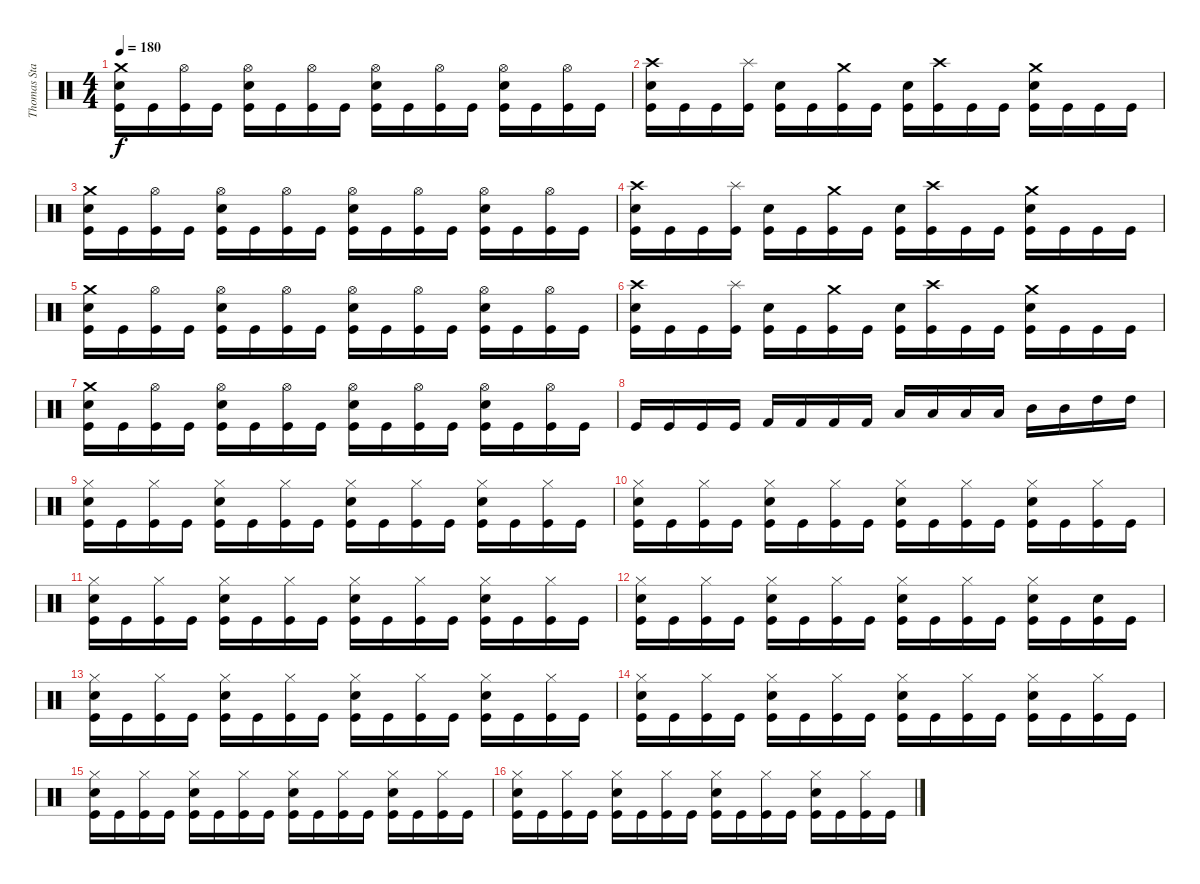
\track ("Thomas Stauch" "Thomas Sta") {instrument percussion}
\staff {score}
\articulation defaults
\ts (4 4)
\tempo 180
\clef neutral
\ks c
("Kick (hit)" "Snare (hit) 2" "Crash medium (hit)").16{dy f} "Kick (hit)".16 ("Kick (hit)" "Hi-Hat (open)").16 "Kick (hit)".16 ("Kick (hit)" "Snare (hit) 2" "Hi-Hat (open)").16 "Kick (hit)".16 ("Kick (hit)" "Hi-Hat (open)").16 "Kick (hit)".16 ("Kick (hit)" "Snare (hit) 2" "Hi-Hat (open)").16 "Kick (hit)".16 ("Kick (hit)" "Hi-Hat (open)").16 "Kick (hit)".16 ("Kick (hit)" "Snare (hit) 2" "Hi-Hat (open)").16 "Kick (hit)".16 ("Kick (hit)" "Hi-Hat (open)").16 "Kick (hit)".16 |
("Kick (hit)" "Snare (hit) 2" "Crash high (hit)").16 "Kick (hit)".16 "Kick (hit)".16 ("Kick (hit)" "Splash (hit)").16 ("Kick (hit)" "Snare (hit) 2").16 "Kick (hit)".16 ("Kick (hit)" "Crash medium (hit)").16 "Kick (hit)".16 ("Kick (hit)" "Snare (hit) 2").16 ("Kick (hit)" "Crash high (hit)").16 "Kick (hit)".16 "Kick (hit)".16 ("Kick (hit)" "Snare (hit) 2" "Crash medium (hit)").16 "Kick (hit)".16 "Kick (hit)".16 "Kick (hit)".16 |
("Kick (hit)" "Snare (hit) 2" "Crash medium (hit)").16 "Kick (hit)".16 ("Kick (hit)" "Hi-Hat (open)").16 "Kick (hit)".16 ("Kick (hit)" "Snare (hit) 2" "Hi-Hat (open)").16 "Kick (hit)".16 ("Kick (hit)" "Hi-Hat (open)").16 "Kick (hit)".16 ("Kick (hit)" "Snare (hit) 2" "Hi-Hat (open)").16 "Kick (hit)".16 ("Kick (hit)" "Hi-Hat (open)").16 "Kick (hit)".16 ("Kick (hit)" "Snare (hit) 2" "Hi-Hat (open)").16 "Kick (hit)".16 ("Kick (hit)" "Hi-Hat (open)").16 "Kick (hit)".16 |
("Kick (hit)" "Snare (hit) 2" "Crash high (hit)").16 "Kick (hit)".16 "Kick (hit)".16 ("Kick (hit)" "Splash (hit)").16 ("Kick (hit)" "Snare (hit) 2").16 "Kick (hit)".16 ("Kick (hit)" "Crash medium (hit)").16 "Kick (hit)".16 ("Kick (hit)" "Snare (hit) 2").16 ("Kick (hit)" "Crash high (hit)").16 "Kick (hit)".16 "Kick (hit)".16 ("Kick (hit)" "Snare (hit) 2" "Crash medium (hit)").16 "Kick (hit)".16 "Kick (hit)".16 "Kick (hit)".16 |
("Kick (hit)" "Snare (hit) 2" "Crash medium (hit)").16 "Kick (hit)".16 ("Kick (hit)" "Hi-Hat (open)").16 "Kick (hit)".16 ("Kick (hit)" "Snare (hit) 2" "Hi-Hat (open)").16 "Kick (hit)".16 ("Kick (hit)" "Hi-Hat (open)").16 "Kick (hit)".16 ("Kick (hit)" "Snare (hit) 2" "Hi-Hat (open)").16 "Kick (hit)".16 ("Kick (hit)" "Hi-Hat (open)").16 "Kick (hit)".16 ("Kick (hit)" "Snare (hit) 2" "Hi-Hat (open)").16 "Kick (hit)".16 ("Kick (hit)" "Hi-Hat (open)").16 "Kick (hit)".16 |
("Kick (hit)" "Snare (hit) 2" "Crash high (hit)").16 "Kick (hit)".16 "Kick (hit)".16 ("Kick (hit)" "Splash (hit)").16 ("Kick (hit)" "Snare (hit) 2").16 "Kick (hit)".16 ("Kick (hit)" "Crash medium (hit)").16 "Kick (hit)".16 ("Kick (hit)" "Snare (hit) 2").16 ("Kick (hit)" "Crash high (hit)").16 "Kick (hit)".16 "Kick (hit)".16 ("Kick (hit)" "Snare (hit) 2" "Crash medium (hit)").16 "Kick (hit)".16 "Kick (hit)".16 "Kick (hit)".16 |
("Kick (hit)" "Snare (hit) 2" "Crash medium (hit)").16 "Kick (hit)".16 ("Kick (hit)" "Hi-Hat (open)").16 "Kick (hit)".16 ("Kick (hit)" "Snare (hit) 2" "Hi-Hat (open)").16 "Kick (hit)".16 ("Kick (hit)" "Hi-Hat (open)").16 "Kick (hit)".16 ("Kick (hit)" "Snare (hit) 2" "Hi-Hat (open)").16 "Kick (hit)".16 ("Kick (hit)" "Hi-Hat (open)").16 "Kick (hit)".16 ("Kick (hit)" "Snare (hit) 2" "Hi-Hat (open)").16 "Kick (hit)".16 ("Kick (hit)" "Hi-Hat (open)").16 "Kick (hit)".16 |
"Kick (hit)".16 "Kick (hit)".16 "Kick (hit)".16 "Kick (hit)".16 "Kick (hit) 2".16 "Kick (hit) 2".16 "Kick (hit) 2".16 "Kick (hit) 2".16 "Low Tom (hit)".16 "Low Tom (hit)".16 "Low Tom (hit)".16 "Low Tom (hit)".16 "Mid Tom (hit)".16 "Mid Tom (hit)".16 "High Tom (hit)".16 "High Tom (hit)".16 |
("Kick (hit)" "Snare (hit) 2" "Hi-Hat (closed)").16 "Kick (hit)".16 ("Kick (hit)" "Hi-Hat (closed)").16 "Kick (hit)".16 ("Kick (hit)" "Snare (hit) 2" "Hi-Hat (closed)").16 "Kick (hit)".16 ("Kick (hit)" "Hi-Hat (closed)").16 "Kick (hit)".16 ("Kick (hit)" "Snare (hit) 2" "Hi-Hat (closed)").16 "Kick (hit)".16 ("Kick (hit)" "Hi-Hat (closed)").16 "Kick (hit)".16 ("Kick (hit)" "Snare (hit) 2" "Hi-Hat (closed)").16 "Kick (hit)".16 ("Kick (hit)" "Hi-Hat (closed)").16 "Kick (hit)".16 |
("Kick (hit)" "Snare (hit) 2" "Hi-Hat (closed)").16 "Kick (hit)".16 ("Kick (hit)" "Hi-Hat (closed)").16 "Kick (hit)".16 ("Kick (hit)" "Snare (hit) 2" "Hi-Hat (closed)").16 "Kick (hit)".16 ("Kick (hit)" "Hi-Hat (closed)").16 "Kick (hit)".16 ("Kick (hit)" "Snare (hit) 2" "Hi-Hat (closed)").16 "Kick (hit)".16 ("Kick (hit)" "Hi-Hat (closed)").16 "Kick (hit)".16 ("Kick (hit)" "Snare (hit) 2" "Hi-Hat (closed)").16 "Kick (hit)".16 ("Kick (hit)" "Hi-Hat (closed)").16 "Kick (hit)".16 |
("Kick (hit)" "Snare (hit) 2" "Hi-Hat (closed)").16 "Kick (hit)".16 ("Kick (hit)" "Hi-Hat (closed)").16 "Kick (hit)".16 ("Kick (hit)" "Snare (hit) 2" "Hi-Hat (closed)").16 "Kick (hit)".16 ("Kick (hit)" "Hi-Hat (closed)").16 "Kick (hit)".16 ("Kick (hit)" "Snare (hit) 2" "Hi-Hat (closed)").16 "Kick (hit)".16 ("Kick (hit)" "Hi-Hat (closed)").16 "Kick (hit)".16 ("Kick (hit)" "Snare (hit) 2" "Hi-Hat (closed)").16 "Kick (hit)".16 ("Kick (hit)" "Hi-Hat (closed)").16 "Kick (hit)".16 |
("Kick (hit)" "Snare (hit) 2" "Hi-Hat (closed)").16 "Kick (hit)".16 ("Kick (hit)" "Hi-Hat (closed)").16 "Kick (hit)".16 ("Kick (hit)" "Snare (hit) 2" "Hi-Hat (closed)").16 "Kick (hit)".16 ("Kick (hit)" "Hi-Hat (closed)").16 "Kick (hit)".16 ("Kick (hit)" "Snare (hit) 2" "Hi-Hat (closed)").16 "Kick (hit)".16 ("Kick (hit)" "Hi-Hat (closed)").16 "Kick (hit)".16 ("Kick (hit)" "Snare (hit) 2" "Hi-Hat (closed)").16 "Kick (hit)".16 ("Kick (hit)" "Snare (hit) 2").16 "Kick (hit)".16 |
("Kick (hit)" "Snare (hit) 2" "Hi-Hat (closed)").16 "Kick (hit)".16 ("Kick (hit)" "Hi-Hat (closed)").16 "Kick (hit)".16 ("Kick (hit)" "Snare (hit) 2" "Hi-Hat (closed)").16 "Kick (hit)".16 ("Kick (hit)" "Hi-Hat (closed)").16 "Kick (hit)".16 ("Kick (hit)" "Snare (hit) 2" "Hi-Hat (closed)").16 "Kick (hit)".16 ("Kick (hit)" "Hi-Hat (closed)").16 "Kick (hit)".16 ("Kick (hit)" "Snare (hit) 2" "Hi-Hat (closed)").16 "Kick (hit)".16 ("Kick (hit)" "Hi-Hat (closed)").16 "Kick (hit)".16 |
("Kick (hit)" "Snare (hit) 2" "Hi-Hat (closed)").16 "Kick (hit)".16 ("Kick (hit)" "Hi-Hat (closed)").16 "Kick (hit)".16 ("Kick (hit)" "Snare (hit) 2" "Hi-Hat (closed)").16 "Kick (hit)".16 ("Kick (hit)" "Hi-Hat (closed)").16 "Kick (hit)".16 ("Kick (hit)" "Snare (hit) 2" "Hi-Hat (closed)").16 "Kick (hit)".16 ("Kick (hit)" "Hi-Hat (closed)").16 "Kick (hit)".16 ("Kick (hit)" "Snare (hit) 2" "Hi-Hat (closed)").16 "Kick (hit)".16 ("Kick (hit)" "Hi-Hat (closed)").16 "Kick (hit)".16 |
("Kick (hit)" "Snare (hit) 2" "Hi-Hat (closed)").16 "Kick (hit)".16 ("Kick (hit)" "Hi-Hat (closed)").16 "Kick (hit)".16 ("Kick (hit)" "Snare (hit) 2" "Hi-Hat (closed)").16 "Kick (hit)".16 ("Kick (hit)" "Hi-Hat (closed)").16 "Kick (hit)".16 ("Kick (hit)" "Snare (hit) 2" "Hi-Hat (closed)").16 "Kick (hit)".16 ("Kick (hit)" "Hi-Hat (closed)").16 "Kick (hit)".16 ("Kick (hit)" "Snare (hit) 2" "Hi-Hat (closed)").16 "Kick (hit)".16 ("Kick (hit)" "Hi-Hat (closed)").16 "Kick (hit)".16 |
("Kick (hit)" "Snare (hit) 2" "Hi-Hat (closed)").16 "Kick (hit)".16 ("Kick (hit)" "Hi-Hat (closed)").16 "Kick (hit)".16 ("Kick (hit)" "Snare (hit) 2" "Hi-Hat (closed)").16 "Kick (hit)".16 ("Kick (hit)" "Hi-Hat (closed)").16 "Kick (hit)".16 ("Kick (hit)" "Snare (hit) 2" "Hi-Hat (closed)").16 "Kick (hit)".16 ("Kick (hit)" "Hi-Hat (closed)").16 "Kick (hit)".16 ("Kick (hit)" "Snare (hit) 2" "Hi-Hat (closed)").16 "Kick (hit)".16 ("Kick (hit)" "Hi-Hat (closed)").16 "Kick (hit)".16
